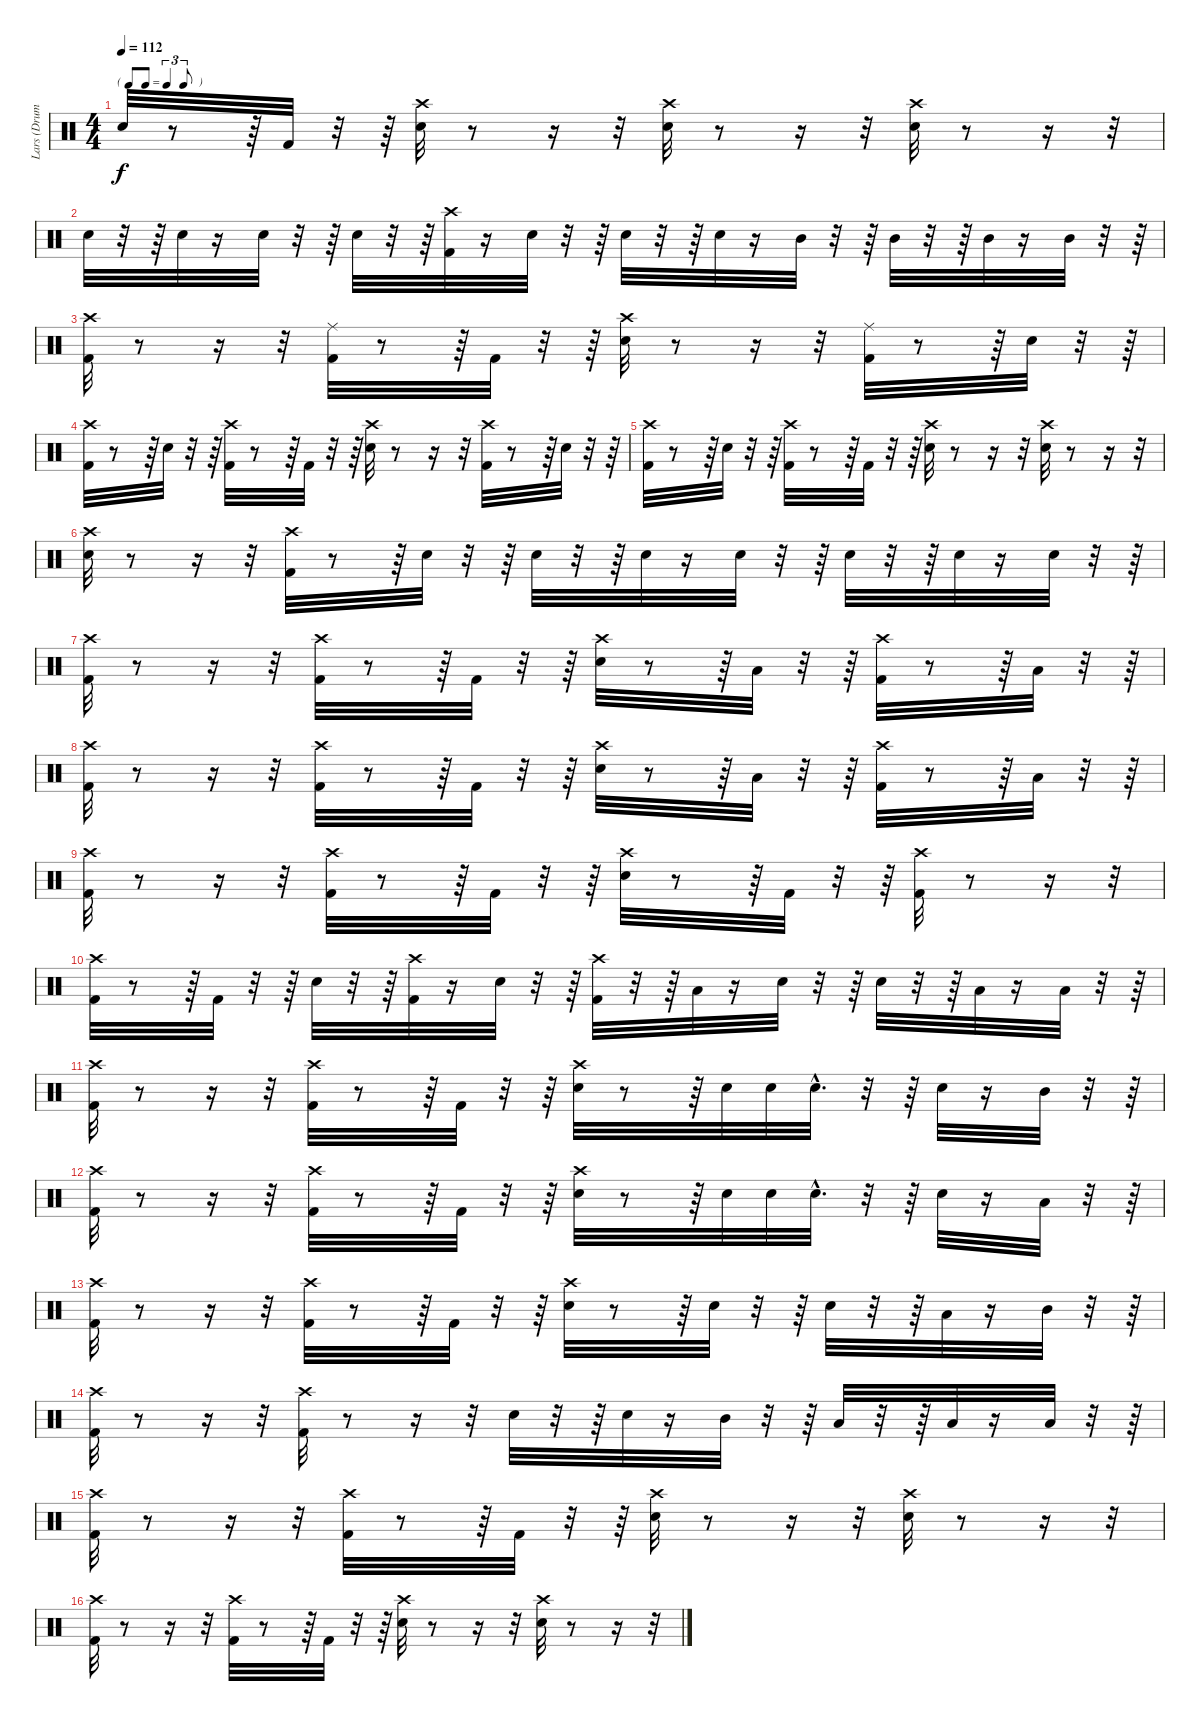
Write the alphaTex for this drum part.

\track ("Lars (Drums)" "Lars (Drum") {instrument percussion}
\staff {score}
\articulation defaults
\ts (4 4)
\tf triplet8th
\tempo 112
\clef neutral
\ks c "Snare (hit) 2".32{dy f}
r.8 r.64 "Kick (hit) 2".32 r.32 r.64 ("Crash high (hit)" "Snare (hit) 2").32 r.8 r.16 r.32 ("Crash high (hit)" "Snare (hit) 2").32 r.8 r.16 r.32 ("Crash high (hit)" "Snare (hit) 2").32 r.8 r.16 r.32 |
"Snare (hit) 2".32 r.32 r.64 "Snare (hit) 2".32 r.16 "Snare (hit) 2".32 r.32 r.64 "Snare (hit) 2".32 r.32 r.64 ("Crash high (hit)" "Kick (hit) 2").32 r.16 "Snare (hit) 2".32 r.32 r.64 "Snare (hit) 2".32 r.32 r.64 "Snare (hit) 2".32 r.16 "Mid Tom (hit)".32 r.32 r.64 "Mid Tom (hit)".32 r.32 r.64 "Mid Tom (hit)".32 r.16 "Mid Tom (hit)".32 r.32 r.64 |
("Crash high (hit)" "Kick (hit) 2").32 r.8 r.16 r.32 ("Ride (middle)" "Kick (hit) 2").32 r.8 r.64 "Kick (hit) 2".32 r.32 r.64 ("Snare (hit) 2" "Crash high (hit)").32 r.8 r.16 r.32 ("Ride (middle)" "Kick (hit) 2").32 r.8 r.64 "Snare (hit) 2".32 r.32 r.64 |
("Crash high (hit)" "Kick (hit) 2").32 r.8 r.64 "Snare (hit) 2".32 r.32 r.64 ("Crash high (hit)" "Kick (hit) 2").32 r.8 r.64 "Kick (hit) 2".32 r.32 r.64 ("Snare (hit) 2" "Crash high (hit)").32 r.8 r.16 r.32 ("Crash high (hit)" "Kick (hit) 2").32 r.8 r.64 "Snare (hit) 2".32 r.32 r.64 |
("Crash high (hit)" "Kick (hit) 2").32 r.8 r.64 "Snare (hit) 2".32 r.32 r.64 ("Crash high (hit)" "Kick (hit) 2").32 r.8 r.64 "Kick (hit) 2".32 r.32 r.64 ("Crash high (hit)" "Snare (hit) 2").32 r.8 r.16 r.32 ("Crash high (hit)" "Snare (hit) 2").32 r.8 r.16 r.32 |
("Crash high (hit)" "Snare (hit) 2").32 r.8 r.16 r.32 ("Kick (hit) 2" "Crash high (hit)").32 r.8 r.64 "Snare (hit) 2".32 r.32 r.64 "Snare (hit) 2".32 r.32 r.64 "Snare (hit) 2".32 r.16 "Snare (hit) 2".32 r.32 r.64 "Snare (hit) 2".32 r.32 r.64 "Snare (hit) 2".32 r.16 "Snare (hit) 2".32 r.32 r.64 |
("Crash high (hit)" "Kick (hit) 2").32 r.8 r.16 r.32 ("Crash high (hit)" "Kick (hit) 2").32 r.8 r.64 "Kick (hit) 2".32 r.32 r.64 ("Snare (hit) 2" "Crash high (hit)").32 r.8 r.64 "Low Tom (hit)".32 r.32 r.64 ("Kick (hit) 2" "Crash high (hit)").32 r.8 r.64 "Low Tom (hit)".32 r.32 r.64 |
("Crash high (hit)" "Kick (hit) 2").32 r.8 r.16 r.32 ("Crash high (hit)" "Kick (hit) 2").32 r.8 r.64 "Kick (hit) 2".32 r.32 r.64 ("Snare (hit) 2" "Crash high (hit)").32 r.8 r.64 "Low Tom (hit)".32 r.32 r.64 ("Kick (hit) 2" "Crash high (hit)").32 r.8 r.64 "Low Tom (hit)".32 r.32 r.64 |
("Kick (hit) 2" "Crash high (hit)").32 r.8 r.16 r.32 ("Kick (hit) 2" "Crash high (hit)").32 r.8 r.64 "Kick (hit) 2".32 r.32 r.64 ("Snare (hit) 2" "Crash high (hit)").32 r.8 r.64 "Kick (hit) 2".32 r.32 r.64 ("Crash high (hit)" "Kick (hit) 2").32 r.8 r.16 r.32 |
("Kick (hit) 2" "Crash high (hit)").32 r.8 r.64 "Kick (hit) 2".32 r.32 r.64 "Snare (hit) 2".32 r.32 r.64 ("Crash high (hit)" "Kick (hit) 2").32 r.16 "Snare (hit) 2".32 r.32 r.64 ("Kick (hit) 2" "Crash high (hit)").32 r.32 r.64 "Low Tom (hit)".32 r.16 "Snare (hit) 2".32 r.32 r.64 "Snare (hit) 2".32 r.32 r.64 "Low Floor Tom (hit)".32 r.16 "Low Floor Tom (hit)".32 r.32 r.64 |
("Crash high (hit)" "Kick (hit) 2").32 r.8 r.16 r.32 ("Crash high (hit)" "Kick (hit) 2").32 r.8 r.64 "Kick (hit) 2".32 r.32 r.64 ("Snare (hit) 2" "Crash high (hit)").32 r.8 r.64 "Snare (hit) 2".32 "Snare (hit) 2".32 "Snare (hit) 2"{hac}.32{d} r.32 r.64 "Snare (hit) 2".32 r.16 "Mid Tom (hit)".32 r.32 r.64 |
("Crash high (hit)" "Kick (hit) 2").32 r.8 r.16 r.32 ("Crash high (hit)" "Kick (hit) 2").32 r.8 r.64 "Kick (hit) 2".32 r.32 r.64 ("Snare (hit) 2" "Crash high (hit)").32 r.8 r.64 "Snare (hit) 2".32 "Snare (hit) 2".32 "Snare (hit) 2"{hac}.32{d} r.32 r.64 "Snare (hit) 2".32 r.16 "Low Tom (hit)".32 r.32 r.64 |
("Crash high (hit)" "Kick (hit) 2").32 r.8 r.16 r.32 ("Crash high (hit)" "Kick (hit) 2").32 r.8 r.64 "Kick (hit) 2".32 r.32 r.64 ("Snare (hit) 2" "Crash high (hit)").32 r.8 r.64 "Snare (hit) 2".32 r.32 r.64 "Snare (hit) 2".32 r.32 r.64 "Low Tom (hit)".32 r.16 "Mid Tom (hit)".32 r.32 r.64 |
("Crash high (hit)" "Kick (hit) 2").32 r.8 r.16 r.32 ("Crash high (hit)" "Kick (hit) 2").32 r.8 r.16 r.32 "Snare (hit) 2".32 r.32 r.64 "Snare (hit) 2".32 r.16 "Mid Tom (hit)".32 r.32 r.64 "Low Tom (hit)".32 r.32 r.64 "Low Floor Tom (hit)".32 r.16 "Low Floor Tom (hit)".32 r.32 r.64 |
("Crash high (hit)" "Kick (hit) 2").32 r.8 r.16 r.32 ("Crash high (hit)" "Kick (hit) 2").32 r.8 r.64 "Kick (hit) 2".32 r.32 r.64 ("Snare (hit) 2" "Crash high (hit)").32 r.8 r.16 r.32 ("Snare (hit) 2" "Crash high (hit)").32 r.8 r.16 r.32 |
("Crash high (hit)" "Kick (hit) 2").32 r.8 r.16 r.32 ("Crash high (hit)" "Kick (hit) 2").32 r.8 r.64 "Kick (hit) 2".32 r.32 r.64 ("Snare (hit) 2" "Crash high (hit)").32 r.8 r.16 r.32 ("Snare (hit) 2" "Crash high (hit)").32 r.8 r.16 r.32
